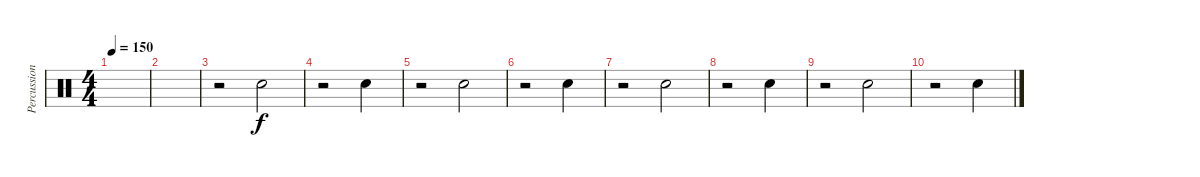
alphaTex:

\track ("Percussions" "Percussion") {instrument percussion}
\staff {score}
\articulation defaults
\ts (4 4)
\tempo 150
\clef neutral
\ks c
|
|
r.2 "Electric Snare (hit)".2 |
r.2 "Electric Snare (hit)".4 |
r.2 "Electric Snare (hit)".2 |
r.2 "Electric Snare (hit)".4 |
r.2 "Electric Snare (hit)".2 |
r.2 "Electric Snare (hit)".4 |
r.2 "Electric Snare (hit)".2 |
r.2 "Electric Snare (hit)".4
